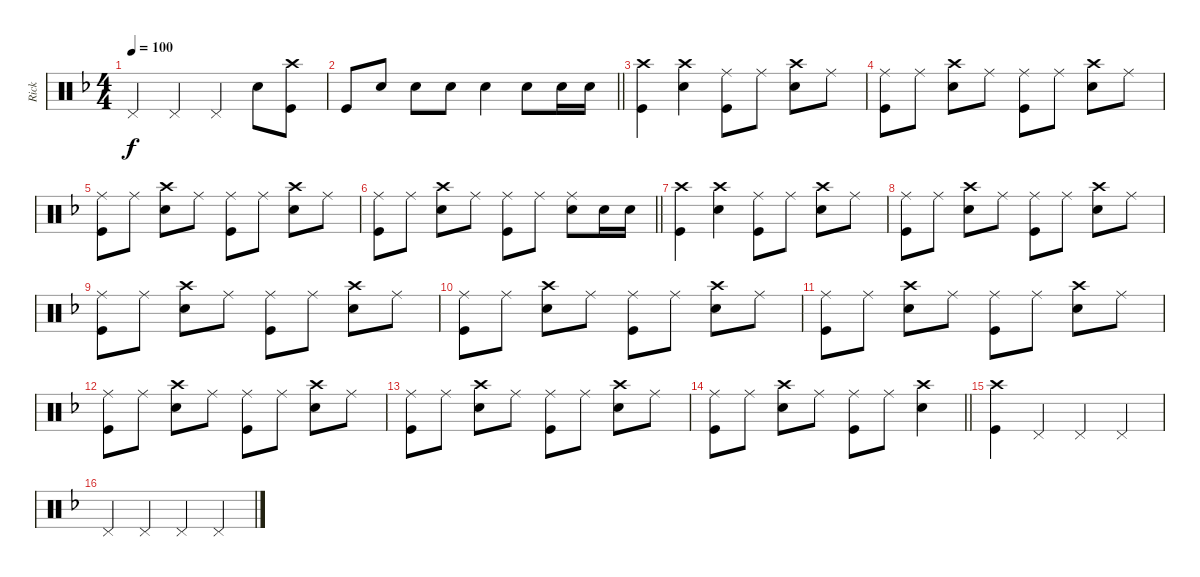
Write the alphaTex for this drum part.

\track ("Rick" "Rick") {instrument percussion}
\staff {score}
\articulation defaults
\ts (4 4)
\tempo 100
\clef neutral
\ks dminor "Pedal Hi-Hat (hit)".4{dy f} "Pedal Hi-Hat (hit)".4 "Pedal Hi-Hat (hit)".4 "Snare (hit) 2".8
("Crash high (hit)" "Kick (hit)").8 |
\barLineRight lightlight "Kick (hit)".8 "Snare (hit) 2".8 "Snare (hit) 2".8 "Snare (hit) 2".8 "Snare (hit) 2".4 "Snare (hit) 2".8 "Snare (hit) 2".16 "Snare (hit) 2".16
|
("Crash high (hit)" "Kick (hit)").4 ("Crash high (hit)" "Snare (hit) 2").4 ("Ride (middle)" "Kick (hit)").8 "Ride (middle)".8 ("Crash high (hit)" "Snare (hit) 2").8 "Ride (middle)".8 |
("Ride (middle)" "Kick (hit)").8 "Ride (middle)".8 ("Crash high (hit)" "Snare (hit) 2").8 "Ride (middle)".8 ("Ride (middle)" "Kick (hit)").8 "Ride (middle)".8 ("Crash high (hit)" "Snare (hit) 2").8 "Ride (middle)".8 |
("Ride (middle)" "Kick (hit)").8 "Ride (middle)".8 ("Crash high (hit)" "Snare (hit) 2").8 "Ride (middle)".8 ("Ride (middle)" "Kick (hit)").8 "Ride (middle)".8 ("Crash high (hit)" "Snare (hit) 2").8 "Ride (middle)".8 |
\barLineRight lightlight
("Ride (middle)" "Kick (hit)").8 "Ride (middle)".8 ("Crash high (hit)" "Snare (hit) 2").8 "Ride (middle)".8 ("Ride (middle)" "Kick (hit)").8 "Ride (middle)".8 ("Ride (middle)" "Snare (hit) 2").8 "Snare (hit) 2".16 "Snare (hit) 2".16 |
("Crash high (hit)" "Kick (hit)").4 ("Crash high (hit)" "Snare (hit) 2").4 ("Ride (middle)" "Kick (hit)").8 "Ride (middle)".8 ("Crash high (hit)" "Snare (hit) 2").8 "Ride (middle)".8 |
("Ride (middle)" "Kick (hit)").8 "Ride (middle)".8 ("Crash high (hit)" "Snare (hit) 2").8 "Ride (middle)".8 ("Ride (middle)" "Kick (hit)").8 "Ride (middle)".8 ("Crash high (hit)" "Snare (hit) 2").8 "Ride (middle)".8 |
("Ride (middle)" "Kick (hit)").8 "Ride (middle)".8 ("Crash high (hit)" "Snare (hit) 2").8 "Ride (middle)".8 ("Ride (middle)" "Kick (hit)").8 "Ride (middle)".8 ("Crash high (hit)" "Snare (hit) 2").8 "Ride (middle)".8 |
("Ride (middle)" "Kick (hit)").8 "Ride (middle)".8 ("Crash high (hit)" "Snare (hit) 2").8 "Ride (middle)".8 ("Ride (middle)" "Kick (hit)").8 "Ride (middle)".8 ("Crash high (hit)" "Snare (hit) 2").8 "Ride (middle)".8 |
("Ride (middle)" "Kick (hit)").8 "Ride (middle)".8 ("Crash high (hit)" "Snare (hit) 2").8 "Ride (middle)".8 ("Ride (middle)" "Kick (hit)").8 "Ride (middle)".8 ("Crash high (hit)" "Snare (hit) 2").8 "Ride (middle)".8 |
("Ride (middle)" "Kick (hit)").8 "Ride (middle)".8 ("Crash high (hit)" "Snare (hit) 2").8 "Ride (middle)".8 ("Ride (middle)" "Kick (hit)").8 "Ride (middle)".8 ("Crash high (hit)" "Snare (hit) 2").8 "Ride (middle)".8 |
("Ride (middle)" "Kick (hit)").8 "Ride (middle)".8 ("Crash high (hit)" "Snare (hit) 2").8 "Ride (middle)".8 ("Ride (middle)" "Kick (hit)").8 "Ride (middle)".8 ("Crash high (hit)" "Snare (hit) 2").8 "Ride (middle)".8 |
\barLineRight lightlight
("Ride (middle)" "Kick (hit)").8 "Ride (middle)".8 ("Crash high (hit)" "Snare (hit) 2").8 "Ride (middle)".8 ("Ride (middle)" "Kick (hit)").8 "Ride (middle)".8 ("Crash high (hit)" "Snare (hit) 2").4 |
("Crash high (hit)" "Kick (hit)").4 "Pedal Hi-Hat (hit)".4 "Pedal Hi-Hat (hit)".4 "Pedal Hi-Hat (hit)".4 |
"Pedal Hi-Hat (hit)".4 "Pedal Hi-Hat (hit)".4 "Pedal Hi-Hat (hit)".4 "Pedal Hi-Hat (hit)".4
